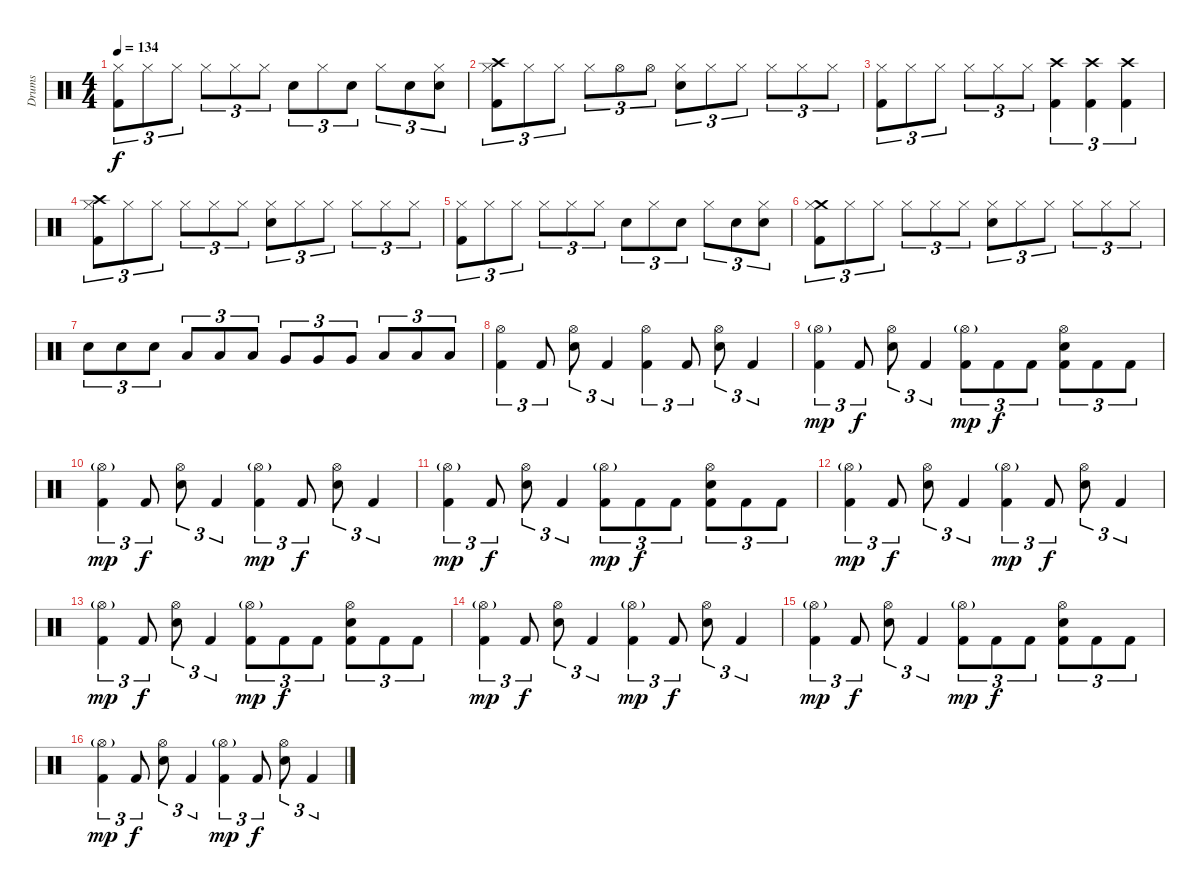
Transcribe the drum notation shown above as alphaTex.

\track ("Drums" "Drums") {instrument percussion}
\staff {score}
\articulation defaults
\ts (4 4)
\tempo 134
\clef neutral
\ks c
("Hi-Hat (closed)" "Kick (hit) 2").8{tu (3 2) dy f} "Hi-Hat (closed)".8{tu (3 2)} "Hi-Hat (closed)".8{tu (3 2)} "Hi-Hat (closed)".8{tu (3 2)} "Hi-Hat (closed)".8{tu (3 2)} "Hi-Hat (closed)".8{tu (3 2)} "Electric Snare (hit)".8{tu (3 2)} "Hi-Hat (closed)".8{tu (3 2)} "Electric Snare (hit)".8{tu (3 2)} "Hi-Hat (closed)".8{tu (3 2)} "Electric Snare (hit)".8{tu (3 2)} ("Hi-Hat (closed)" "Electric Snare (hit)").8{tu (3 2)} |
("Crash high (hit)" "Hi-Hat (closed)" "Kick (hit) 2").8{tu (3 2)} "Hi-Hat (closed)".8{tu (3 2)} "Hi-Hat (closed)".8{tu (3 2)} "Hi-Hat (closed)".8{tu (3 2)} "Hi-Hat (open)".8{tu (3 2)} "Hi-Hat (open)".8{tu (3 2)} ("Hi-Hat (closed)" "Electric Snare (hit)").8{tu (3 2)} "Hi-Hat (closed)".8{tu (3 2)} "Hi-Hat (closed)".8{tu (3 2)} "Hi-Hat (closed)".8{tu (3 2)} "Hi-Hat (closed)".8{tu (3 2)} "Hi-Hat (closed)".8{tu (3 2)} |
("Hi-Hat (closed)" "Kick (hit) 2").8{tu (3 2)} "Hi-Hat (closed)".8{tu (3 2)} "Hi-Hat (closed)".8{tu (3 2)} "Hi-Hat (closed)".8{tu (3 2)} "Hi-Hat (closed)".8{tu (3 2)} "Hi-Hat (closed)".8{tu (3 2)} ("Crash high (hit)" "Kick (hit) 2").4{tu (3 2)} ("Crash high (hit)" "Kick (hit) 2").4{tu (3 2)} ("Crash high (hit)" "Kick (hit) 2").4{tu (3 2)} |
("Crash high (hit)" "Hi-Hat (closed)" "Kick (hit) 2").8{tu (3 2)} "Hi-Hat (closed)".8{tu (3 2)} "Hi-Hat (closed)".8{tu (3 2)} "Hi-Hat (closed)".8{tu (3 2)} "Hi-Hat (closed)".8{tu (3 2)} "Hi-Hat (closed)".8{tu (3 2)} ("Hi-Hat (closed)" "Electric Snare (hit)").8{tu (3 2)} "Hi-Hat (closed)".8{tu (3 2)} "Hi-Hat (closed)".8{tu (3 2)} "Hi-Hat (closed)".8{tu (3 2)} "Hi-Hat (closed)".8{tu (3 2)} "Hi-Hat (closed)".8{tu (3 2)} |
("Hi-Hat (closed)" "Kick (hit) 2").8{tu (3 2)} "Hi-Hat (closed)".8{tu (3 2)} "Hi-Hat (closed)".8{tu (3 2)} "Hi-Hat (closed)".8{tu (3 2)} "Hi-Hat (closed)".8{tu (3 2)} "Hi-Hat (closed)".8{tu (3 2)} "Electric Snare (hit)".8{tu (3 2)} "Hi-Hat (closed)".8{tu (3 2)} "Electric Snare (hit)".8{tu (3 2)} "Hi-Hat (closed)".8{tu (3 2)} "Electric Snare (hit)".8{tu (3 2)} ("Hi-Hat (closed)" "Electric Snare (hit)").8{tu (3 2)} |
("Crash medium (hit)" "Hi-Hat (closed)" "Kick (hit) 2").8{tu (3 2)} "Hi-Hat (closed)".8{tu (3 2)} "Hi-Hat (closed)".8{tu (3 2)} "Hi-Hat (closed)".8{tu (3 2)} "Hi-Hat (closed)".8{tu (3 2)} "Hi-Hat (closed)".8{tu (3 2)} ("Hi-Hat (closed)" "Electric Snare (hit)").8{tu (3 2)} "Hi-Hat (closed)".8{tu (3 2)} "Hi-Hat (closed)".8{tu (3 2)} "Hi-Hat (closed)".8{tu (3 2)} "Hi-Hat (closed)".8{tu (3 2)} "Hi-Hat (closed)".8{tu (3 2)} |
"Electric Snare (hit)".8{tu (3 2)} "Electric Snare (hit)".8{tu (3 2)} "Electric Snare (hit)".8{tu (3 2)} "Low Tom (hit)".8{tu (3 2)} "Low Tom (hit)".8{tu (3 2)} "Low Tom (hit)".8{tu (3 2)} "Very Low Tom (hit)".8{tu (3 2)} "Very Low Tom (hit)".8{tu (3 2)} "Very Low Tom (hit)".8{tu (3 2)} "Low Floor Tom (hit)".8{tu (3 2)} "Low Floor Tom (hit)".8{tu (3 2)} "Low Floor Tom (hit)".8{tu (3 2)} |
("Hi-Hat (open)" "Kick (hit) 2").4{tu (3 2)} "Kick (hit) 2".8{tu (3 2)} ("Hi-Hat (open)" "Electric Snare (hit)").8{tu (3 2)} "Kick (hit) 2".4{tu (3 2)} ("Hi-Hat (open)" "Kick (hit) 2").4{tu (3 2)} "Kick (hit) 2".8{tu (3 2)} ("Hi-Hat (open)" "Electric Snare (hit)").8{tu (3 2)} "Kick (hit) 2".4{tu (3 2)} |
("Hi-Hat (open)"{g} "Kick (hit) 2").4{tu (3 2) dy mp} "Kick (hit) 2".8{tu (3 2) dy f} ("Hi-Hat (open)" "Electric Snare (hit)").8{tu (3 2)} "Kick (hit) 2".4{tu (3 2)} ("Hi-Hat (open)"{g} "Kick (hit) 2").8{tu (3 2) dy mp} "Kick (hit) 2".8{tu (3 2) dy f} "Kick (hit) 2".8{tu (3 2)} ("Hi-Hat (open)" "Electric Snare (hit)" "Kick (hit) 2").8{tu (3 2)} "Kick (hit) 2".8{tu (3 2)} "Kick (hit) 2".8{tu (3 2)} |
("Hi-Hat (open)"{g} "Kick (hit) 2").4{tu (3 2) dy mp} "Kick (hit) 2".8{tu (3 2) dy f} ("Hi-Hat (open)" "Electric Snare (hit)").8{tu (3 2)} "Kick (hit) 2".4{tu (3 2)} ("Hi-Hat (open)"{g} "Kick (hit) 2").4{tu (3 2) dy mp} "Kick (hit) 2".8{tu (3 2) dy f} ("Hi-Hat (open)" "Electric Snare (hit)").8{tu (3 2)} "Kick (hit) 2".4{tu (3 2)} |
("Hi-Hat (open)"{g} "Kick (hit) 2").4{tu (3 2) dy mp} "Kick (hit) 2".8{tu (3 2) dy f} ("Hi-Hat (open)" "Electric Snare (hit)").8{tu (3 2)} "Kick (hit) 2".4{tu (3 2)} ("Hi-Hat (open)"{g} "Kick (hit) 2").8{tu (3 2) dy mp} "Kick (hit) 2".8{tu (3 2) dy f} "Kick (hit) 2".8{tu (3 2)} ("Hi-Hat (open)" "Electric Snare (hit)" "Kick (hit) 2").8{tu (3 2)} "Kick (hit) 2".8{tu (3 2)} "Kick (hit) 2".8{tu (3 2)} |
("Hi-Hat (open)"{g} "Kick (hit) 2").4{tu (3 2) dy mp} "Kick (hit) 2".8{tu (3 2) dy f} ("Hi-Hat (open)" "Electric Snare (hit)").8{tu (3 2)} "Kick (hit) 2".4{tu (3 2)} ("Hi-Hat (open)"{g} "Kick (hit) 2").4{tu (3 2) dy mp} "Kick (hit) 2".8{tu (3 2) dy f} ("Hi-Hat (open)" "Electric Snare (hit)").8{tu (3 2)} "Kick (hit) 2".4{tu (3 2)} |
("Hi-Hat (open)"{g} "Kick (hit) 2").4{tu (3 2) dy mp} "Kick (hit) 2".8{tu (3 2) dy f} ("Hi-Hat (open)" "Electric Snare (hit)").8{tu (3 2)} "Kick (hit) 2".4{tu (3 2)} ("Hi-Hat (open)"{g} "Kick (hit) 2").8{tu (3 2) dy mp} "Kick (hit) 2".8{tu (3 2) dy f} "Kick (hit) 2".8{tu (3 2)} ("Hi-Hat (open)" "Electric Snare (hit)" "Kick (hit) 2").8{tu (3 2)} "Kick (hit) 2".8{tu (3 2)} "Kick (hit) 2".8{tu (3 2)} |
("Hi-Hat (open)"{g} "Kick (hit) 2").4{tu (3 2) dy mp} "Kick (hit) 2".8{tu (3 2) dy f} ("Hi-Hat (open)" "Electric Snare (hit)").8{tu (3 2)} "Kick (hit) 2".4{tu (3 2)} ("Hi-Hat (open)"{g} "Kick (hit) 2").4{tu (3 2) dy mp} "Kick (hit) 2".8{tu (3 2) dy f} ("Hi-Hat (open)" "Electric Snare (hit)").8{tu (3 2)} "Kick (hit) 2".4{tu (3 2)} |
("Hi-Hat (open)"{g} "Kick (hit) 2").4{tu (3 2) dy mp} "Kick (hit) 2".8{tu (3 2) dy f} ("Hi-Hat (open)" "Electric Snare (hit)").8{tu (3 2)} "Kick (hit) 2".4{tu (3 2)} ("Hi-Hat (open)"{g} "Kick (hit) 2").8{tu (3 2) dy mp} "Kick (hit) 2".8{tu (3 2) dy f} "Kick (hit) 2".8{tu (3 2)} ("Hi-Hat (open)" "Electric Snare (hit)" "Kick (hit) 2").8{tu (3 2)} "Kick (hit) 2".8{tu (3 2)} "Kick (hit) 2".8{tu (3 2)} |
("Hi-Hat (open)"{g} "Kick (hit) 2").4{tu (3 2) dy mp} "Kick (hit) 2".8{tu (3 2) dy f} ("Hi-Hat (open)" "Electric Snare (hit)").8{tu (3 2)} "Kick (hit) 2".4{tu (3 2)} ("Hi-Hat (open)"{g} "Kick (hit) 2").4{tu (3 2) dy mp} "Kick (hit) 2".8{tu (3 2) dy f} ("Hi-Hat (open)" "Electric Snare (hit)").8{tu (3 2)} "Kick (hit) 2".4{tu (3 2)}
